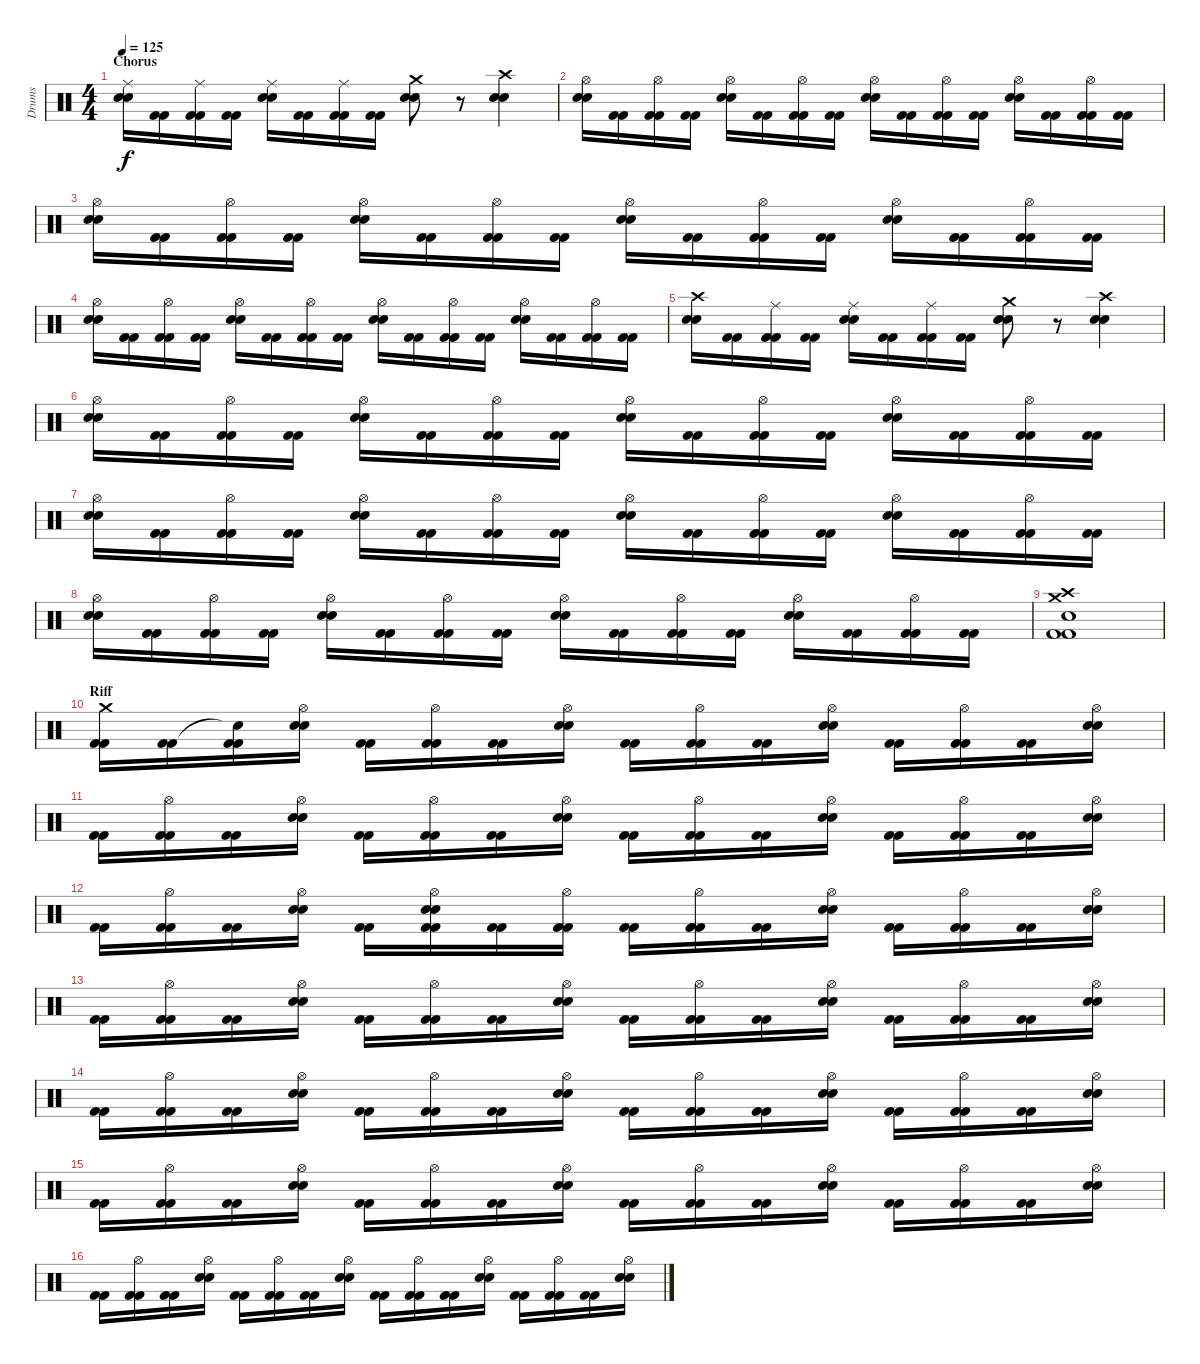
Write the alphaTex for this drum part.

\track ("Drums" "Drums") {instrument percussion}
\staff {score}
\articulation defaults
\ts (4 4)
\section ("" "Chorus")
\tempo 125
\clef neutral
\ks c
("Ride (middle)" "Snare (hit) 2" "Snare (hit) 2").16{dy f} ("Kick (hit) 2" "Kick (hit) 2").16 ("Ride (middle)" "Kick (hit) 2" "Kick (hit) 2").16 ("Kick (hit) 2" "Kick (hit) 2").16 ("Ride (middle)" "Snare (hit) 2" "Snare (hit) 2").16 ("Kick (hit) 2" "Kick (hit) 2").16 ("Ride (middle)" "Kick (hit) 2" "Kick (hit) 2").16 ("Kick (hit) 2" "Kick (hit) 2").16 ("Crash medium (hit)" "Snare (hit) 2" "Snare (hit) 2").8 r.8 ("Crash high (hit)" "Snare (hit) 2" "Snare (hit) 2").4 |
("Hi-Hat (open)" "Snare (hit) 2" "Snare (hit) 2").16 ("Kick (hit) 2" "Kick (hit) 2").16 ("Hi-Hat (open)" "Kick (hit) 2" "Kick (hit) 2").16 ("Kick (hit) 2" "Kick (hit) 2").16 ("Hi-Hat (open)" "Snare (hit) 2" "Snare (hit) 2").16 ("Kick (hit) 2" "Kick (hit) 2").16 ("Hi-Hat (open)" "Kick (hit) 2" "Kick (hit) 2").16 ("Kick (hit) 2" "Kick (hit) 2").16 ("Hi-Hat (open)" "Snare (hit) 2" "Snare (hit) 2").16 ("Kick (hit) 2" "Kick (hit) 2").16 ("Hi-Hat (open)" "Kick (hit) 2" "Kick (hit) 2").16 ("Kick (hit) 2" "Kick (hit) 2").16 ("Hi-Hat (open)" "Snare (hit) 2" "Snare (hit) 2").16 ("Kick (hit) 2" "Kick (hit) 2").16 ("Hi-Hat (open)" "Kick (hit) 2" "Kick (hit) 2").16 ("Kick (hit) 2" "Kick (hit) 2").16 |
("Hi-Hat (open)" "Snare (hit) 2" "Snare (hit) 2").16 ("Kick (hit) 2" "Kick (hit) 2").16 ("Hi-Hat (open)" "Kick (hit) 2" "Kick (hit) 2").16 ("Kick (hit) 2" "Kick (hit) 2").16 ("Hi-Hat (open)" "Snare (hit) 2" "Snare (hit) 2").16 ("Kick (hit) 2" "Kick (hit) 2").16 ("Hi-Hat (open)" "Kick (hit) 2" "Kick (hit) 2").16 ("Kick (hit) 2" "Kick (hit) 2").16 ("Hi-Hat (open)" "Snare (hit) 2" "Snare (hit) 2").16 ("Kick (hit) 2" "Kick (hit) 2").16 ("Hi-Hat (open)" "Kick (hit) 2" "Kick (hit) 2").16 ("Kick (hit) 2" "Kick (hit) 2").16 ("Hi-Hat (open)" "Snare (hit) 2" "Snare (hit) 2").16 ("Kick (hit) 2" "Kick (hit) 2").16 ("Hi-Hat (open)" "Kick (hit) 2" "Kick (hit) 2").16 ("Kick (hit) 2" "Kick (hit) 2").16 |
("Hi-Hat (open)" "Snare (hit) 2" "Snare (hit) 2").16 ("Kick (hit) 2" "Kick (hit) 2").16 ("Hi-Hat (open)" "Kick (hit) 2" "Kick (hit) 2").16 ("Kick (hit) 2" "Kick (hit) 2").16 ("Hi-Hat (open)" "Snare (hit) 2" "Snare (hit) 2").16 ("Kick (hit) 2" "Kick (hit) 2").16 ("Hi-Hat (open)" "Kick (hit) 2" "Kick (hit) 2").16 ("Kick (hit) 2" "Kick (hit) 2").16 ("Hi-Hat (open)" "Snare (hit) 2" "Snare (hit) 2").16 ("Kick (hit) 2" "Kick (hit) 2").16 ("Hi-Hat (open)" "Kick (hit) 2" "Kick (hit) 2").16 ("Kick (hit) 2" "Kick (hit) 2").16 ("Hi-Hat (open)" "Snare (hit) 2" "Snare (hit) 2").16 ("Kick (hit) 2" "Kick (hit) 2").16 ("Hi-Hat (open)" "Kick (hit) 2" "Kick (hit) 2").16 ("Kick (hit) 2" "Kick (hit) 2").16 |
("Crash high (hit)" "Snare (hit) 2" "Snare (hit) 2").16 ("Kick (hit) 2" "Kick (hit) 2").16 ("Ride (middle)" "Kick (hit) 2" "Kick (hit) 2").16 ("Kick (hit) 2" "Kick (hit) 2").16 ("Ride (middle)" "Snare (hit) 2" "Snare (hit) 2").16 ("Kick (hit) 2" "Kick (hit) 2").16 ("Ride (middle)" "Kick (hit) 2" "Kick (hit) 2").16 ("Kick (hit) 2" "Kick (hit) 2").16 ("Crash medium (hit)" "Snare (hit) 2" "Snare (hit) 2").8 r.8 ("Crash high (hit)" "Snare (hit) 2" "Snare (hit) 2").4 |
("Hi-Hat (open)" "Snare (hit) 2" "Snare (hit) 2").16 ("Kick (hit) 2" "Kick (hit) 2").16 ("Hi-Hat (open)" "Kick (hit) 2" "Kick (hit) 2").16 ("Kick (hit) 2" "Kick (hit) 2").16 ("Hi-Hat (open)" "Snare (hit) 2" "Snare (hit) 2").16 ("Kick (hit) 2" "Kick (hit) 2").16 ("Hi-Hat (open)" "Kick (hit) 2" "Kick (hit) 2").16 ("Kick (hit) 2" "Kick (hit) 2").16 ("Hi-Hat (open)" "Snare (hit) 2" "Snare (hit) 2").16 ("Kick (hit) 2" "Kick (hit) 2").16 ("Hi-Hat (open)" "Kick (hit) 2" "Kick (hit) 2").16 ("Kick (hit) 2" "Kick (hit) 2").16 ("Hi-Hat (open)" "Snare (hit) 2" "Snare (hit) 2").16 ("Kick (hit) 2" "Kick (hit) 2").16 ("Hi-Hat (open)" "Kick (hit) 2" "Kick (hit) 2").16 ("Kick (hit) 2" "Kick (hit) 2").16 |
("Hi-Hat (open)" "Snare (hit) 2" "Snare (hit) 2").16 ("Kick (hit) 2" "Kick (hit) 2").16 ("Hi-Hat (open)" "Kick (hit) 2" "Kick (hit) 2").16 ("Kick (hit) 2" "Kick (hit) 2").16 ("Hi-Hat (open)" "Snare (hit) 2" "Snare (hit) 2").16 ("Kick (hit) 2" "Kick (hit) 2").16 ("Hi-Hat (open)" "Kick (hit) 2" "Kick (hit) 2").16 ("Kick (hit) 2" "Kick (hit) 2").16 ("Hi-Hat (open)" "Snare (hit) 2" "Snare (hit) 2").16 ("Kick (hit) 2" "Kick (hit) 2").16 ("Hi-Hat (open)" "Kick (hit) 2" "Kick (hit) 2").16 ("Kick (hit) 2" "Kick (hit) 2").16 ("Hi-Hat (open)" "Snare (hit) 2" "Snare (hit) 2").16 ("Kick (hit) 2" "Kick (hit) 2").16 ("Hi-Hat (open)" "Kick (hit) 2" "Kick (hit) 2").16 ("Kick (hit) 2" "Kick (hit) 2").16 |
("Hi-Hat (open)" "Snare (hit) 2" "Snare (hit) 2").16 ("Kick (hit) 2" "Kick (hit) 2").16 ("Hi-Hat (open)" "Kick (hit) 2" "Kick (hit) 2").16 ("Kick (hit) 2" "Kick (hit) 2").16 ("Hi-Hat (open)" "Snare (hit) 2" "Snare (hit) 2").16 ("Kick (hit) 2" "Kick (hit) 2").16 ("Hi-Hat (open)" "Kick (hit) 2" "Kick (hit) 2").16 ("Kick (hit) 2" "Kick (hit) 2").16 ("Hi-Hat (open)" "Snare (hit) 2" "Snare (hit) 2").16 ("Kick (hit) 2" "Kick (hit) 2").16 ("Hi-Hat (open)" "Kick (hit) 2" "Kick (hit) 2").16 ("Kick (hit) 2" "Kick (hit) 2").16 ("Hi-Hat (open)" "Snare (hit) 2" "Snare (hit) 2").16 ("Kick (hit) 2" "Kick (hit) 2").16 ("Hi-Hat (open)" "Kick (hit) 2" "Kick (hit) 2").16 ("Kick (hit) 2" "Kick (hit) 2").16 |
("Crash high (hit)" "Crash medium (hit)" "Snare (hit) 2" "Kick (hit) 2" "Kick (hit) 2").1 |
\section ("" "Riff")
("Crash medium (hit)" "Kick (hit) 2" "Kick (hit) 2").16 ("Kick (hit) 2" "Kick (hit) 2").16 ("Snare (hit)"{t} "Kick (hit) 2" "Kick (hit) 2").16 ("Hi-Hat (open)" "Snare (hit) 2" "Snare (hit) 2").16 ("Kick (hit) 2" "Kick (hit) 2").16 ("Hi-Hat (open)" "Kick (hit) 2" "Kick (hit) 2").16 ("Kick (hit) 2" "Kick (hit) 2").16 ("Hi-Hat (open)" "Snare (hit) 2" "Snare (hit) 2").16 ("Kick (hit) 2" "Kick (hit) 2").16 ("Hi-Hat (open)" "Kick (hit) 2" "Kick (hit) 2").16 ("Kick (hit) 2" "Kick (hit) 2").16 ("Hi-Hat (open)" "Snare (hit) 2" "Snare (hit) 2").16 ("Kick (hit) 2" "Kick (hit) 2").16 ("Hi-Hat (open)" "Kick (hit) 2" "Kick (hit) 2").16 ("Kick (hit) 2" "Kick (hit) 2").16 ("Hi-Hat (open)" "Snare (hit) 2" "Snare (hit) 2").16 |
("Kick (hit) 2" "Kick (hit) 2").16 ("Hi-Hat (open)" "Kick (hit) 2" "Kick (hit) 2").16 ("Kick (hit) 2" "Kick (hit) 2").16 ("Hi-Hat (open)" "Snare (hit) 2" "Snare (hit) 2").16 ("Kick (hit) 2" "Kick (hit) 2").16 ("Hi-Hat (open)" "Kick (hit) 2" "Kick (hit) 2").16 ("Kick (hit) 2" "Kick (hit) 2").16 ("Hi-Hat (open)" "Snare (hit) 2" "Snare (hit) 2").16 ("Kick (hit) 2" "Kick (hit) 2").16 ("Hi-Hat (open)" "Kick (hit) 2" "Kick (hit) 2").16 ("Kick (hit) 2" "Kick (hit) 2").16 ("Hi-Hat (open)" "Snare (hit) 2" "Snare (hit) 2").16 ("Kick (hit) 2" "Kick (hit) 2").16 ("Hi-Hat (open)" "Kick (hit) 2" "Kick (hit) 2").16 ("Kick (hit) 2" "Kick (hit) 2").16 ("Hi-Hat (open)" "Snare (hit) 2" "Snare (hit) 2").16 |
("Kick (hit) 2" "Kick (hit) 2").16 ("Hi-Hat (open)" "Kick (hit) 2" "Kick (hit) 2").16 ("Kick (hit) 2" "Kick (hit) 2").16 ("Hi-Hat (open)" "Snare (hit) 2" "Snare (hit) 2").16 ("Kick (hit) 2" "Kick (hit) 2").16 ("Hi-Hat (open)" "Snare (hit) 2" "Snare (hit) 2" "Kick (hit) 2" "Kick (hit) 2").16 ("Kick (hit) 2" "Kick (hit) 2").16 ("Hi-Hat (open)" "Kick (hit) 2" "Kick (hit) 2").16 ("Kick (hit) 2" "Kick (hit) 2").16 ("Hi-Hat (open)" "Kick (hit) 2" "Kick (hit) 2").16 ("Kick (hit) 2" "Kick (hit) 2").16 ("Hi-Hat (open)" "Snare (hit) 2" "Snare (hit) 2").16 ("Kick (hit) 2" "Kick (hit) 2").16 ("Hi-Hat (open)" "Kick (hit) 2" "Kick (hit) 2").16 ("Kick (hit) 2" "Kick (hit) 2").16 ("Hi-Hat (open)" "Snare (hit) 2" "Snare (hit) 2").16 |
("Kick (hit) 2" "Kick (hit) 2").16 ("Hi-Hat (open)" "Kick (hit) 2" "Kick (hit) 2").16 ("Kick (hit) 2" "Kick (hit) 2").16 ("Hi-Hat (open)" "Snare (hit) 2" "Snare (hit) 2").16 ("Kick (hit) 2" "Kick (hit) 2").16 ("Hi-Hat (open)" "Kick (hit) 2" "Kick (hit) 2").16 ("Kick (hit) 2" "Kick (hit) 2").16 ("Hi-Hat (open)" "Snare (hit) 2" "Snare (hit) 2").16 ("Kick (hit) 2" "Kick (hit) 2").16 ("Hi-Hat (open)" "Kick (hit) 2" "Kick (hit) 2").16 ("Kick (hit) 2" "Kick (hit) 2").16 ("Hi-Hat (open)" "Snare (hit) 2" "Snare (hit) 2").16 ("Kick (hit) 2" "Kick (hit) 2").16 ("Hi-Hat (open)" "Kick (hit) 2" "Kick (hit) 2").16 ("Kick (hit) 2" "Kick (hit) 2").16 ("Hi-Hat (open)" "Snare (hit) 2" "Snare (hit) 2").16 |
("Kick (hit) 2" "Kick (hit) 2").16 ("Hi-Hat (open)" "Kick (hit) 2" "Kick (hit) 2").16 ("Kick (hit) 2" "Kick (hit) 2").16 ("Hi-Hat (open)" "Snare (hit) 2" "Snare (hit) 2").16 ("Kick (hit) 2" "Kick (hit) 2").16 ("Hi-Hat (open)" "Kick (hit) 2" "Kick (hit) 2").16 ("Kick (hit) 2" "Kick (hit) 2").16 ("Hi-Hat (open)" "Snare (hit) 2" "Snare (hit) 2").16 ("Kick (hit) 2" "Kick (hit) 2").16 ("Hi-Hat (open)" "Kick (hit) 2" "Kick (hit) 2").16 ("Kick (hit) 2" "Kick (hit) 2").16 ("Hi-Hat (open)" "Snare (hit) 2" "Snare (hit) 2").16 ("Kick (hit) 2" "Kick (hit) 2").16 ("Hi-Hat (open)" "Kick (hit) 2" "Kick (hit) 2").16 ("Kick (hit) 2" "Kick (hit) 2").16 ("Hi-Hat (open)" "Snare (hit) 2" "Snare (hit) 2").16 |
("Kick (hit) 2" "Kick (hit) 2").16 ("Hi-Hat (open)" "Kick (hit) 2" "Kick (hit) 2").16 ("Kick (hit) 2" "Kick (hit) 2").16 ("Hi-Hat (open)" "Snare (hit) 2" "Snare (hit) 2").16 ("Kick (hit) 2" "Kick (hit) 2").16 ("Hi-Hat (open)" "Kick (hit) 2" "Kick (hit) 2").16 ("Kick (hit) 2" "Kick (hit) 2").16 ("Hi-Hat (open)" "Snare (hit) 2" "Snare (hit) 2").16 ("Kick (hit) 2" "Kick (hit) 2").16 ("Hi-Hat (open)" "Kick (hit) 2" "Kick (hit) 2").16 ("Kick (hit) 2" "Kick (hit) 2").16 ("Hi-Hat (open)" "Snare (hit) 2" "Snare (hit) 2").16 ("Kick (hit) 2" "Kick (hit) 2").16 ("Hi-Hat (open)" "Kick (hit) 2" "Kick (hit) 2").16 ("Kick (hit) 2" "Kick (hit) 2").16 ("Hi-Hat (open)" "Snare (hit) 2" "Snare (hit) 2").16 |
("Kick (hit) 2" "Kick (hit) 2").16 ("Hi-Hat (open)" "Kick (hit) 2" "Kick (hit) 2").16 ("Kick (hit) 2" "Kick (hit) 2").16 ("Hi-Hat (open)" "Snare (hit) 2" "Snare (hit) 2").16 ("Kick (hit) 2" "Kick (hit) 2").16 ("Hi-Hat (open)" "Kick (hit) 2" "Kick (hit) 2").16 ("Kick (hit) 2" "Kick (hit) 2").16 ("Hi-Hat (open)" "Snare (hit) 2" "Snare (hit) 2").16 ("Kick (hit) 2" "Kick (hit) 2").16 ("Hi-Hat (open)" "Kick (hit) 2" "Kick (hit) 2").16 ("Kick (hit) 2" "Kick (hit) 2").16 ("Hi-Hat (open)" "Snare (hit) 2" "Snare (hit) 2").16 ("Kick (hit) 2" "Kick (hit) 2").16 ("Hi-Hat (open)" "Kick (hit) 2" "Kick (hit) 2").16 ("Kick (hit) 2" "Kick (hit) 2").16 ("Hi-Hat (open)" "Snare (hit) 2" "Snare (hit) 2").16
